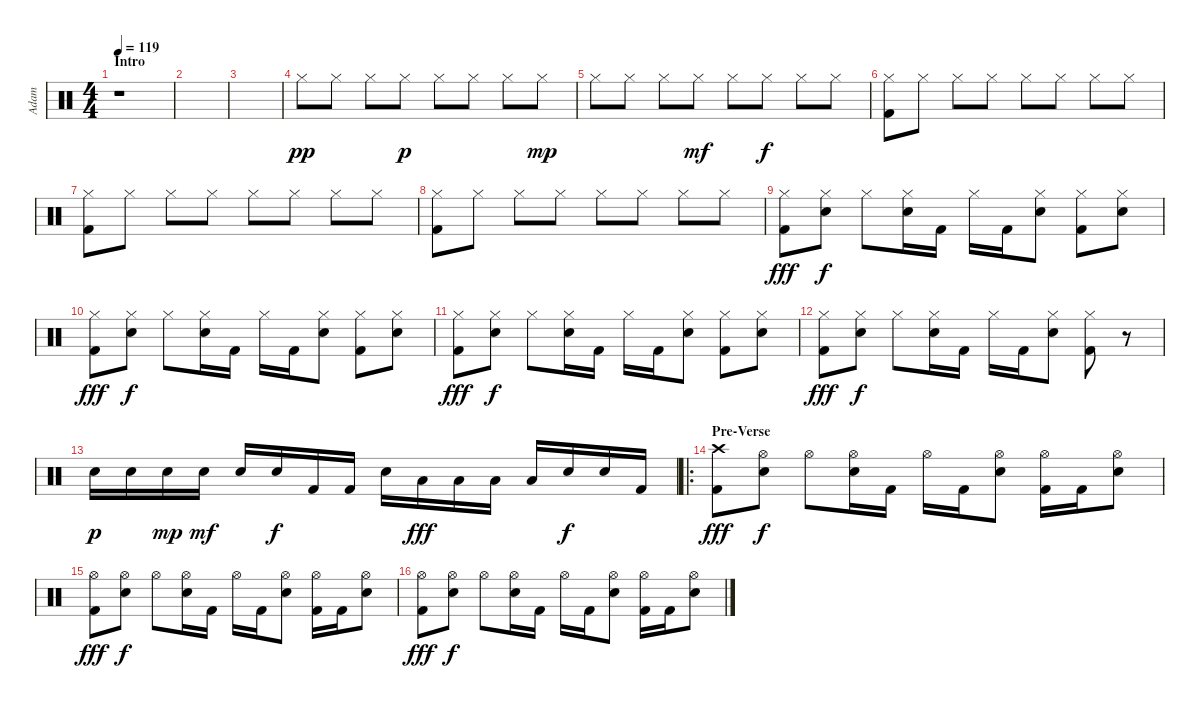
\track ("Adam" "Adam") {instrument percussion}
\staff {score}
\articulation defaults
\ts (4 4)
\section ("" "Intro")
\tempo 119
\clef neutral
\ks c
r.1{dy pp} |
|
|
"Hi-Hat (closed)".8 "Hi-Hat (closed)".8 "Hi-Hat (closed)".8 "Hi-Hat (closed)".8{dy p} "Hi-Hat (closed)".8 "Hi-Hat (closed)".8 "Hi-Hat (closed)".8 "Hi-Hat (closed)".8{dy mp} |
"Hi-Hat (closed)".8 "Hi-Hat (closed)".8 "Hi-Hat (closed)".8 "Hi-Hat (closed)".8{dy mf} "Hi-Hat (closed)".8 "Hi-Hat (closed)".8{dy f} "Hi-Hat (closed)".8 "Hi-Hat (closed)".8 |
("Hi-Hat (closed)" "Kick (hit) 2").8 "Hi-Hat (closed)".8 "Hi-Hat (closed)".8 "Hi-Hat (closed)".8 "Hi-Hat (closed)".8 "Hi-Hat (closed)".8 "Hi-Hat (closed)".8 "Hi-Hat (closed)".8 |
("Hi-Hat (closed)" "Kick (hit) 2").8 "Hi-Hat (closed)".8 "Hi-Hat (closed)".8 "Hi-Hat (closed)".8 "Hi-Hat (closed)".8 "Hi-Hat (closed)".8 "Hi-Hat (closed)".8 "Hi-Hat (closed)".8 |
("Hi-Hat (closed)" "Kick (hit) 2").8 "Hi-Hat (closed)".8 "Hi-Hat (closed)".8 "Hi-Hat (closed)".8 "Hi-Hat (closed)".8 "Hi-Hat (closed)".8 "Hi-Hat (closed)".8 "Hi-Hat (closed)".8 |
("Hi-Hat (closed)" "Kick (hit) 2").8{dy fff} ("Hi-Hat (closed)" "Electric Snare (hit)").8{dy f} "Hi-Hat (closed)".8 ("Hi-Hat (closed)" "Electric Snare (hit)").16 "Kick (hit) 2".16 "Hi-Hat (closed)".16 "Kick (hit) 2".16 ("Hi-Hat (closed)" "Electric Snare (hit)").8 ("Hi-Hat (closed)" "Kick (hit) 2").8 ("Hi-Hat (closed)" "Electric Snare (hit)").8 |
("Hi-Hat (closed)" "Kick (hit) 2").8{dy fff} ("Hi-Hat (closed)" "Electric Snare (hit)").8{dy f} "Hi-Hat (closed)".8 ("Hi-Hat (closed)" "Electric Snare (hit)").16 "Kick (hit) 2".16 "Hi-Hat (closed)".16 "Kick (hit) 2".16 ("Hi-Hat (closed)" "Electric Snare (hit)").8 ("Hi-Hat (closed)" "Kick (hit) 2").8 ("Hi-Hat (closed)" "Electric Snare (hit)").8 |
("Hi-Hat (closed)" "Kick (hit) 2").8{dy fff} ("Hi-Hat (closed)" "Electric Snare (hit)").8{dy f} "Hi-Hat (closed)".8 ("Hi-Hat (closed)" "Electric Snare (hit)").16 "Kick (hit) 2".16 "Hi-Hat (closed)".16 "Kick (hit) 2".16 ("Hi-Hat (closed)" "Electric Snare (hit)").8 ("Hi-Hat (closed)" "Kick (hit) 2").8 ("Hi-Hat (closed)" "Electric Snare (hit)").8 |
("Hi-Hat (closed)" "Kick (hit) 2").8{dy fff} ("Hi-Hat (closed)" "Electric Snare (hit)").8{dy f} "Hi-Hat (closed)".8 ("Hi-Hat (closed)" "Electric Snare (hit)").16 "Kick (hit) 2".16 "Hi-Hat (closed)".16 "Kick (hit) 2".16 ("Hi-Hat (closed)" "Electric Snare (hit)").8 ("Hi-Hat (closed)" "Kick (hit) 2").8 r.8 |
"Electric Snare (hit)".16{dy p} "Electric Snare (hit)".16 "Electric Snare (hit)".16{dy mp} "Electric Snare (hit)".16{dy mf} "Electric Snare (hit)".16 "Electric Snare (hit)".16{dy f} "Kick (hit) 2".16 "Kick (hit) 2".16 "Electric Snare (hit)".16 "Low Tom (hit)".16{dy fff} "Low Tom (hit)".16 "Low Tom (hit)".16 "Low Tom (hit)".16 "Electric Snare (hit)".16{dy f} "Electric Snare (hit)".16 "Kick (hit) 2".16 |
\ro
\section ("" "Pre-Verse")
("Crash high (hit)" "Kick (hit) 2").8{dy fff} ("Hi-Hat (open)" "Electric Snare (hit)").8{dy f} "Hi-Hat (open)".8 ("Hi-Hat (open)" "Electric Snare (hit)").16 "Kick (hit) 2".16 "Hi-Hat (open)".16 "Kick (hit) 2".16 ("Hi-Hat (open)" "Electric Snare (hit)").8 ("Hi-Hat (open)" "Kick (hit) 2").16 "Kick (hit) 2".16 ("Hi-Hat (open)" "Electric Snare (hit)").8 |
("Hi-Hat (open)" "Kick (hit) 2").8{dy fff} ("Hi-Hat (open)" "Electric Snare (hit)").8{dy f} "Hi-Hat (open)".8 ("Hi-Hat (open)" "Electric Snare (hit)").16 "Kick (hit) 2".16 "Hi-Hat (open)".16 "Kick (hit) 2".16 ("Hi-Hat (open)" "Electric Snare (hit)").8 ("Hi-Hat (open)" "Kick (hit) 2").16 "Kick (hit) 2".16 ("Hi-Hat (open)" "Electric Snare (hit)").8 |
("Hi-Hat (open)" "Kick (hit) 2").8{dy fff} ("Hi-Hat (open)" "Electric Snare (hit)").8{dy f} "Hi-Hat (open)".8 ("Hi-Hat (open)" "Electric Snare (hit)").16 "Kick (hit) 2".16 "Hi-Hat (open)".16 "Kick (hit) 2".16 ("Hi-Hat (open)" "Electric Snare (hit)").8 ("Hi-Hat (open)" "Kick (hit) 2").16 "Kick (hit) 2".16 ("Hi-Hat (open)" "Electric Snare (hit)").8
